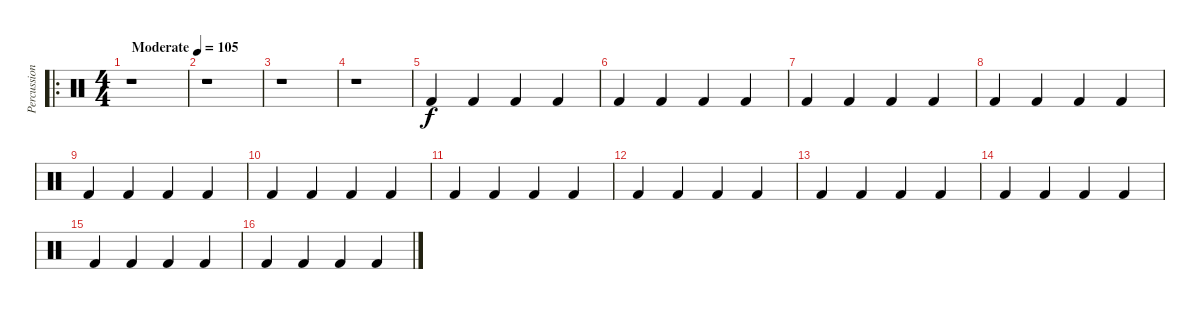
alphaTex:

\track ("Percussion" "Percussion") {instrument percussion}
\staff {score}
\articulation defaults
\ro
\ts (4 4)
\tempo (105 "Moderate")
\clef neutral
\ks c
r.1{dy f} |
r.1 |
r.1 |
r.1 |
"Kick (hit) 2".4 "Kick (hit) 2".4 "Kick (hit) 2".4 "Kick (hit) 2".4 |
"Kick (hit) 2".4 "Kick (hit) 2".4 "Kick (hit) 2".4 "Kick (hit) 2".4 |
"Kick (hit) 2".4 "Kick (hit) 2".4 "Kick (hit) 2".4 "Kick (hit) 2".4 |
"Kick (hit) 2".4 "Kick (hit) 2".4 "Kick (hit) 2".4 "Kick (hit) 2".4 |
"Kick (hit) 2".4 "Kick (hit) 2".4 "Kick (hit) 2".4 "Kick (hit) 2".4 |
"Kick (hit) 2".4 "Kick (hit) 2".4 "Kick (hit) 2".4 "Kick (hit) 2".4 |
"Kick (hit) 2".4 "Kick (hit) 2".4 "Kick (hit) 2".4 "Kick (hit) 2".4 |
"Kick (hit) 2".4 "Kick (hit) 2".4 "Kick (hit) 2".4 "Kick (hit) 2".4 |
"Kick (hit) 2".4 "Kick (hit) 2".4 "Kick (hit) 2".4 "Kick (hit) 2".4 |
"Kick (hit) 2".4 "Kick (hit) 2".4 "Kick (hit) 2".4 "Kick (hit) 2".4 |
"Kick (hit) 2".4 "Kick (hit) 2".4 "Kick (hit) 2".4 "Kick (hit) 2".4 |
"Kick (hit) 2".4 "Kick (hit) 2".4 "Kick (hit) 2".4 "Kick (hit) 2".4
